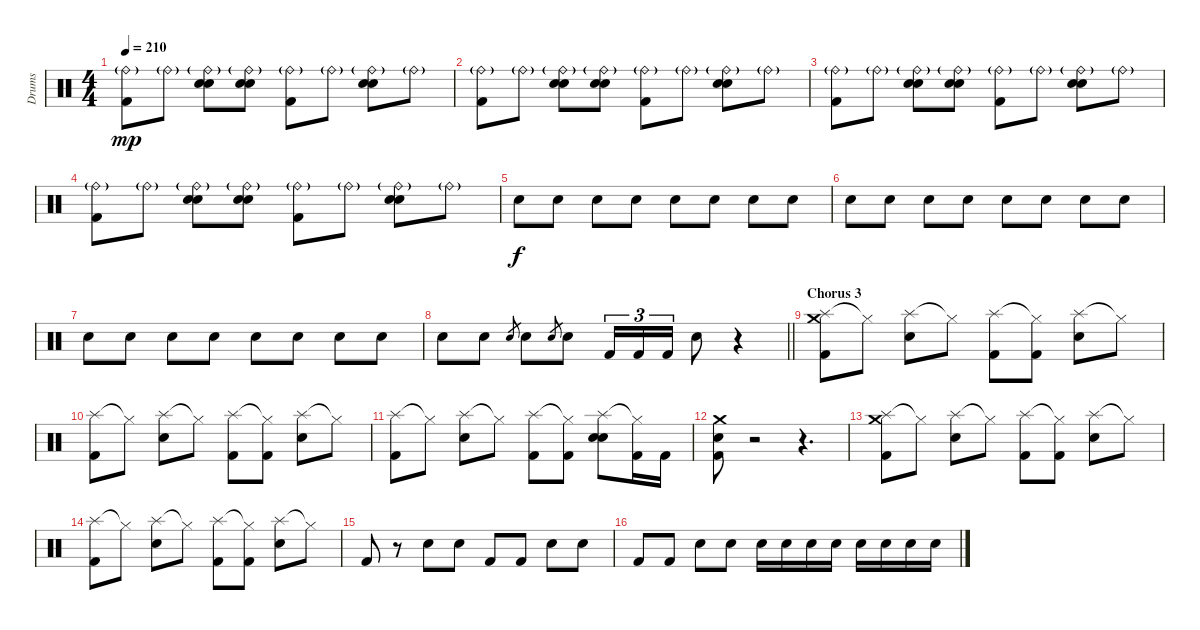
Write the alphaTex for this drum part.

\track ("Drums" "Drums") {instrument percussion}
\staff {score}
\articulation defaults
\ts (4 4)
\tempo 210
\clef neutral
\ks c
("Ride (bell)"{g} "Kick (hit) 2").8{dy mp} "Ride (bell)"{g}.8 ("Ride (bell)"{g} "Hand Clap (hit)" "Electric Snare (hit)").8 ("Ride (bell)"{g} "Hand Clap (hit)" "Electric Snare (hit)").8 ("Ride (bell)"{g} "Kick (hit) 2").8 "Ride (bell)"{g}.8 ("Ride (bell)"{g} "Hand Clap (hit)" "Electric Snare (hit)").8 "Ride (bell)"{g}.8 |
("Ride (bell)"{g} "Kick (hit) 2").8 "Ride (bell)"{g}.8 ("Ride (bell)"{g} "Hand Clap (hit)" "Electric Snare (hit)").8 ("Ride (bell)"{g} "Hand Clap (hit)" "Electric Snare (hit)").8 ("Ride (bell)"{g} "Kick (hit) 2").8 "Ride (bell)"{g}.8 ("Ride (bell)"{g} "Hand Clap (hit)" "Electric Snare (hit)").8 "Ride (bell)"{g}.8 |
("Ride (bell)"{g} "Kick (hit) 2").8 "Ride (bell)"{g}.8 ("Ride (bell)"{g} "Hand Clap (hit)" "Electric Snare (hit)").8 ("Ride (bell)"{g} "Hand Clap (hit)" "Electric Snare (hit)").8 ("Ride (bell)"{g} "Kick (hit) 2").8 "Ride (bell)"{g}.8 ("Ride (bell)"{g} "Hand Clap (hit)" "Electric Snare (hit)").8 "Ride (bell)"{g}.8 |
("Ride (bell)"{g} "Kick (hit) 2").8 "Ride (bell)"{g}.8 ("Ride (bell)"{g} "Hand Clap (hit)" "Electric Snare (hit)").8 ("Ride (bell)"{g} "Hand Clap (hit)" "Electric Snare (hit)").8 ("Ride (bell)"{g} "Kick (hit) 2").8 "Ride (bell)"{g}.8 ("Ride (bell)"{g} "Hand Clap (hit)" "Electric Snare (hit)").8 "Ride (bell)"{g}.8 |
"Electric Snare (hit)".8{dy f volume 4} "Electric Snare (hit)".8{volume 16} "Electric Snare (hit)".8 "Electric Snare (hit)".8 "Electric Snare (hit)".8 "Electric Snare (hit)".8 "Electric Snare (hit)".8 "Electric Snare (hit)".8 |
"Electric Snare (hit)".8 "Electric Snare (hit)".8 "Electric Snare (hit)".8 "Electric Snare (hit)".8 "Electric Snare (hit)".8 "Electric Snare (hit)".8 "Electric Snare (hit)".8 "Electric Snare (hit)".8 |
"Electric Snare (hit)".8 "Electric Snare (hit)".8 "Electric Snare (hit)".8 "Electric Snare (hit)".8 "Electric Snare (hit)".8 "Electric Snare (hit)".8 "Electric Snare (hit)".8 "Electric Snare (hit)".8 |
\barLineRight lightlight "Electric Snare (hit)".8 "Electric Snare (hit)".8 "Electric Snare (hit)".8{gr} "Electric Snare (hit)".8 "Electric Snare (hit)".8{gr} "Electric Snare (hit)".8 "Kick (hit) 2".16{tu (3 2)} "Kick (hit) 2".16{tu (3 2)} "Kick (hit) 2".16{tu (3 2)} "Electric Snare (hit)".8
r.4 |
\section ("" "Chorus 3")
("Splash (hit)" "Crash medium (hit)" "Kick (hit) 2").8 "Hi-Hat (closed)"{t}.8 ("Splash (hit)" "Electric Snare (hit)").8 "Hi-Hat (closed)"{t}.8 ("Splash (hit)" "Kick (hit) 2").8 ("Hi-Hat (closed)"{t} "Kick (hit) 2").8 ("Splash (hit)" "Electric Snare (hit)").8 "Hi-Hat (closed)"{t}.8 |
("Splash (hit)" "Kick (hit) 2").8 "Hi-Hat (closed)"{t}.8 ("Splash (hit)" "Electric Snare (hit)").8 "Hi-Hat (closed)"{t}.8 ("Splash (hit)" "Kick (hit) 2").8 ("Hi-Hat (closed)"{t} "Kick (hit) 2").8 ("Splash (hit)" "Electric Snare (hit)").8 "Hi-Hat (closed)"{t}.8 |
("Splash (hit)" "Kick (hit) 2").8 "Hi-Hat (closed)"{t}.8 ("Splash (hit)" "Electric Snare (hit)").8 "Hi-Hat (closed)"{t}.8 ("Splash (hit)" "Kick (hit) 2").8 ("Hi-Hat (closed)"{t} "Kick (hit) 2").8 ("Splash (hit)" "Electric Snare (hit)" "Electric Snare (hit)").8 ("Hi-Hat (closed)"{t} "Kick (hit) 2").16 "Kick (hit) 2".16 |
("Crash medium (hit)" "Electric Snare (hit)" "Kick (hit) 2").8 r.2 r.4{d} |
("Splash (hit)" "Crash medium (hit)" "Kick (hit) 2").8 "Hi-Hat (closed)"{t}.8 ("Splash (hit)" "Electric Snare (hit)").8 "Hi-Hat (closed)"{t}.8 ("Splash (hit)" "Kick (hit) 2").8 ("Hi-Hat (closed)"{t} "Kick (hit) 2").8 ("Splash (hit)" "Electric Snare (hit)").8 "Hi-Hat (closed)"{t}.8 |
("Splash (hit)" "Kick (hit) 2").8 "Hi-Hat (closed)"{t}.8 ("Splash (hit)" "Electric Snare (hit)").8 "Hi-Hat (closed)"{t}.8 ("Splash (hit)" "Kick (hit) 2").8 ("Hi-Hat (closed)"{t} "Kick (hit) 2").8 ("Splash (hit)" "Electric Snare (hit)").8 "Hi-Hat (closed)"{t}.8 |
"Kick (hit) 2".8 r.8 "Electric Snare (hit)".8 "Electric Snare (hit)".8 "Kick (hit) 2".8 "Kick (hit) 2".8 "Electric Snare (hit)".8 "Electric Snare (hit)".8 |
"Kick (hit) 2".8 "Kick (hit) 2".8 "Electric Snare (hit)".8 "Electric Snare (hit)".8 "Electric Snare (hit)".16 "Electric Snare (hit)".16 "Electric Snare (hit)".16 "Electric Snare (hit)".16 "Electric Snare (hit)".16 "Electric Snare (hit)".16 "Electric Snare (hit)".16 "Electric Snare (hit)".16
